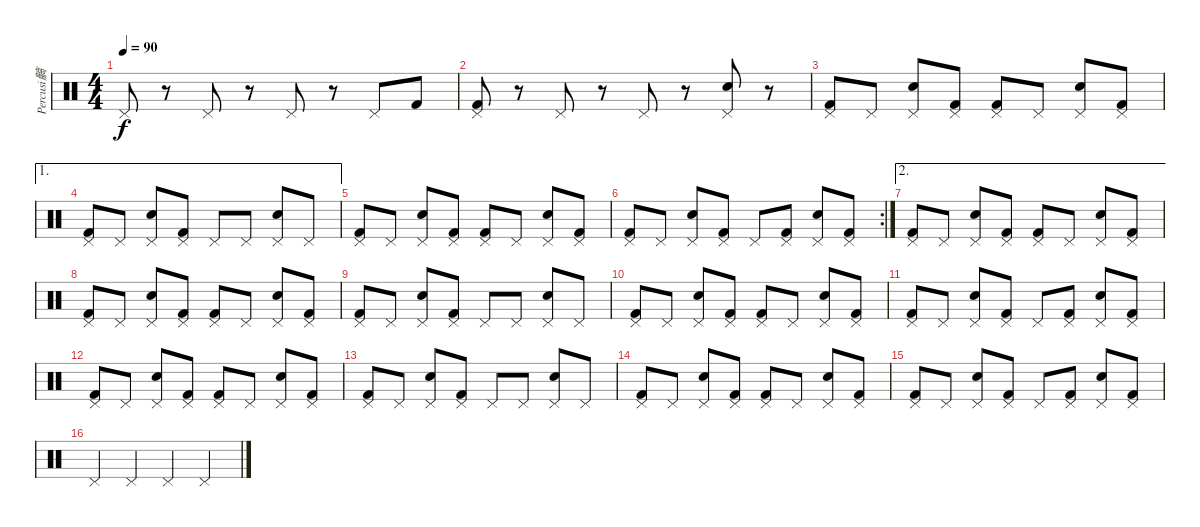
\track ("Percusi髇" "Percusi髇") {instrument percussion}
\staff {score}
\articulation defaults
\ts (4 4)
\tempo 90
\clef neutral
\ks c "Pedal Hi-Hat (hit)".8{dy f}
r.8 "Pedal Hi-Hat (hit)".8 r.8 "Pedal Hi-Hat (hit)".8 r.8 "Pedal Hi-Hat (hit)".8 "Kick (hit) 2".8 |
("Pedal Hi-Hat (hit)" "Kick (hit) 2").8 r.8 "Pedal Hi-Hat (hit)".8 r.8 "Pedal Hi-Hat (hit)".8 r.8 ("Pedal Hi-Hat (hit)" "Snare (hit) 2").8 r.8 |
("Pedal Hi-Hat (hit)" "Kick (hit) 2").8 "Pedal Hi-Hat (hit)".8 ("Pedal Hi-Hat (hit)" "Snare (hit) 2").8 ("Pedal Hi-Hat (hit)" "Kick (hit) 2").8 ("Pedal Hi-Hat (hit)" "Kick (hit) 2").8 "Pedal Hi-Hat (hit)".8 ("Pedal Hi-Hat (hit)" "Snare (hit) 2").8 ("Pedal Hi-Hat (hit)" "Kick (hit) 2").8 |
\ae 1
("Pedal Hi-Hat (hit)" "Kick (hit) 2").8 "Pedal Hi-Hat (hit)".8 ("Pedal Hi-Hat (hit)" "Snare (hit) 2").8 ("Pedal Hi-Hat (hit)" "Kick (hit) 2").8 "Pedal Hi-Hat (hit)".8 "Pedal Hi-Hat (hit)".8 ("Pedal Hi-Hat (hit)" "Snare (hit) 2").8 "Pedal Hi-Hat (hit)".8 |
("Pedal Hi-Hat (hit)" "Kick (hit) 2").8 "Pedal Hi-Hat (hit)".8 ("Pedal Hi-Hat (hit)" "Snare (hit) 2").8 ("Pedal Hi-Hat (hit)" "Kick (hit) 2").8 ("Pedal Hi-Hat (hit)" "Kick (hit) 2").8 "Pedal Hi-Hat (hit)".8 ("Pedal Hi-Hat (hit)" "Snare (hit) 2").8 ("Pedal Hi-Hat (hit)" "Kick (hit) 2").8 |
\rc 2
("Pedal Hi-Hat (hit)" "Kick (hit) 2").8 "Pedal Hi-Hat (hit)".8 ("Pedal Hi-Hat (hit)" "Snare (hit) 2").8 ("Pedal Hi-Hat (hit)" "Kick (hit) 2").8 "Pedal Hi-Hat (hit)".8 ("Pedal Hi-Hat (hit)" "Kick (hit) 2").8 ("Pedal Hi-Hat (hit)" "Snare (hit) 2").8 ("Pedal Hi-Hat (hit)" "Kick (hit) 2").8 |
\ae 2
("Pedal Hi-Hat (hit)" "Kick (hit) 2").8 "Pedal Hi-Hat (hit)".8 ("Pedal Hi-Hat (hit)" "Snare (hit) 2").8 ("Pedal Hi-Hat (hit)" "Kick (hit) 2").8 ("Pedal Hi-Hat (hit)" "Kick (hit) 2").8 "Pedal Hi-Hat (hit)".8 ("Pedal Hi-Hat (hit)" "Snare (hit) 2").8 ("Pedal Hi-Hat (hit)" "Kick (hit) 2").8 |
("Pedal Hi-Hat (hit)" "Kick (hit) 2").8 "Pedal Hi-Hat (hit)".8 ("Pedal Hi-Hat (hit)" "Snare (hit) 2").8 ("Pedal Hi-Hat (hit)" "Kick (hit) 2").8 ("Pedal Hi-Hat (hit)" "Kick (hit) 2").8 "Pedal Hi-Hat (hit)".8 ("Pedal Hi-Hat (hit)" "Snare (hit) 2").8 ("Pedal Hi-Hat (hit)" "Kick (hit) 2").8 |
("Pedal Hi-Hat (hit)" "Kick (hit) 2").8 "Pedal Hi-Hat (hit)".8 ("Pedal Hi-Hat (hit)" "Snare (hit) 2").8 ("Pedal Hi-Hat (hit)" "Kick (hit) 2").8 "Pedal Hi-Hat (hit)".8 "Pedal Hi-Hat (hit)".8 ("Pedal Hi-Hat (hit)" "Snare (hit) 2").8 "Pedal Hi-Hat (hit)".8 |
("Pedal Hi-Hat (hit)" "Kick (hit) 2").8 "Pedal Hi-Hat (hit)".8 ("Pedal Hi-Hat (hit)" "Snare (hit) 2").8 ("Pedal Hi-Hat (hit)" "Kick (hit) 2").8 ("Pedal Hi-Hat (hit)" "Kick (hit) 2").8 "Pedal Hi-Hat (hit)".8 ("Pedal Hi-Hat (hit)" "Snare (hit) 2").8 ("Pedal Hi-Hat (hit)" "Kick (hit) 2").8 |
("Pedal Hi-Hat (hit)" "Kick (hit) 2").8 "Pedal Hi-Hat (hit)".8 ("Pedal Hi-Hat (hit)" "Snare (hit) 2").8 ("Pedal Hi-Hat (hit)" "Kick (hit) 2").8 "Pedal Hi-Hat (hit)".8 ("Pedal Hi-Hat (hit)" "Kick (hit) 2").8 ("Pedal Hi-Hat (hit)" "Snare (hit) 2").8 ("Pedal Hi-Hat (hit)" "Kick (hit) 2").8 |
("Pedal Hi-Hat (hit)" "Kick (hit) 2").8 "Pedal Hi-Hat (hit)".8 ("Pedal Hi-Hat (hit)" "Snare (hit) 2").8 ("Pedal Hi-Hat (hit)" "Kick (hit) 2").8 ("Pedal Hi-Hat (hit)" "Kick (hit) 2").8 "Pedal Hi-Hat (hit)".8 ("Pedal Hi-Hat (hit)" "Snare (hit) 2").8 ("Pedal Hi-Hat (hit)" "Kick (hit) 2").8 |
("Pedal Hi-Hat (hit)" "Kick (hit) 2").8 "Pedal Hi-Hat (hit)".8 ("Pedal Hi-Hat (hit)" "Snare (hit) 2").8 ("Pedal Hi-Hat (hit)" "Kick (hit) 2").8 "Pedal Hi-Hat (hit)".8 "Pedal Hi-Hat (hit)".8 ("Pedal Hi-Hat (hit)" "Snare (hit) 2").8 "Pedal Hi-Hat (hit)".8 |
("Pedal Hi-Hat (hit)" "Kick (hit) 2").8 "Pedal Hi-Hat (hit)".8 ("Pedal Hi-Hat (hit)" "Snare (hit) 2").8 ("Pedal Hi-Hat (hit)" "Kick (hit) 2").8 ("Pedal Hi-Hat (hit)" "Kick (hit) 2").8 "Pedal Hi-Hat (hit)".8 ("Pedal Hi-Hat (hit)" "Snare (hit) 2").8 ("Pedal Hi-Hat (hit)" "Kick (hit) 2").8 |
("Pedal Hi-Hat (hit)" "Kick (hit) 2").8 "Pedal Hi-Hat (hit)".8 ("Pedal Hi-Hat (hit)" "Snare (hit) 2").8 ("Pedal Hi-Hat (hit)" "Kick (hit) 2").8 "Pedal Hi-Hat (hit)".8 ("Pedal Hi-Hat (hit)" "Kick (hit) 2").8 ("Pedal Hi-Hat (hit)" "Snare (hit) 2").8 ("Pedal Hi-Hat (hit)" "Kick (hit) 2").8 |
"Pedal Hi-Hat (hit)".4 "Pedal Hi-Hat (hit)".4 "Pedal Hi-Hat (hit)".4 "Pedal Hi-Hat (hit)".4
